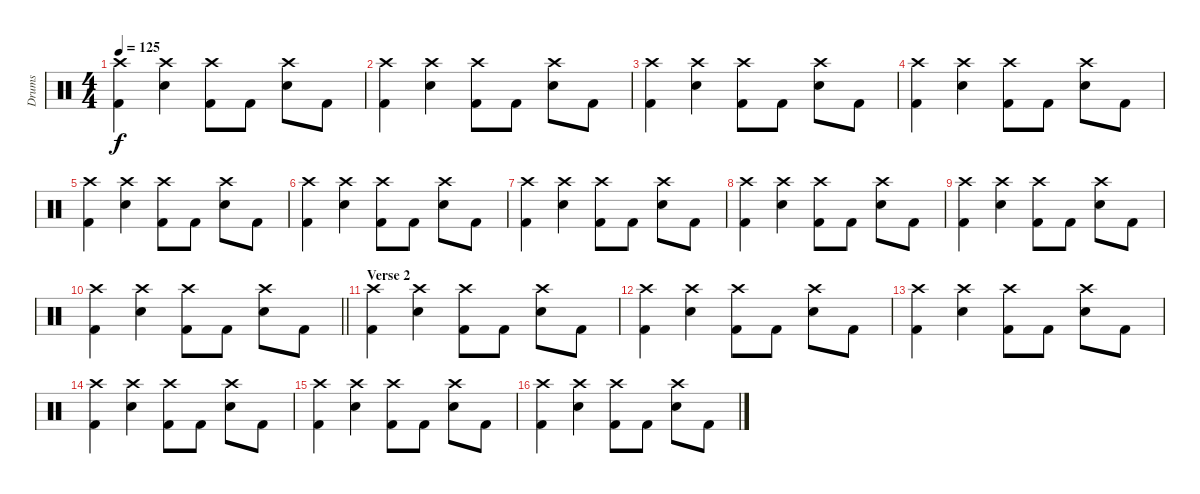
\track ("Drums" "Drums") {instrument percussion}
\staff {score}
\articulation defaults
\ts (4 4)
\tempo 125
\clef neutral
\ks c
("Kick (hit) 2" "Crash high (hit)").4{dy f} ("Snare (hit) 2" "Crash high (hit)").4 ("Kick (hit) 2" "Crash high (hit)").8 "Kick (hit) 2".8 ("Snare (hit) 2" "Crash high (hit)").8 "Kick (hit) 2".8 |
("Kick (hit) 2" "Crash high (hit)").4 ("Snare (hit) 2" "Crash high (hit)").4 ("Kick (hit) 2" "Crash high (hit)").8 "Kick (hit) 2".8 ("Snare (hit) 2" "Crash high (hit)").8 "Kick (hit) 2".8 |
("Kick (hit) 2" "Crash high (hit)").4 ("Snare (hit) 2" "Crash high (hit)").4 ("Kick (hit) 2" "Crash high (hit)").8 "Kick (hit) 2".8 ("Snare (hit) 2" "Crash high (hit)").8 "Kick (hit) 2".8 |
("Kick (hit) 2" "Crash high (hit)").4 ("Snare (hit) 2" "Crash high (hit)").4 ("Kick (hit) 2" "Crash high (hit)").8 "Kick (hit) 2".8 ("Snare (hit) 2" "Crash high (hit)").8 "Kick (hit) 2".8 |
("Kick (hit) 2" "Crash high (hit)").4 ("Snare (hit) 2" "Crash high (hit)").4 ("Kick (hit) 2" "Crash high (hit)").8 "Kick (hit) 2".8 ("Snare (hit) 2" "Crash high (hit)").8 "Kick (hit) 2".8 |
("Kick (hit) 2" "Crash high (hit)").4 ("Snare (hit) 2" "Crash high (hit)").4 ("Kick (hit) 2" "Crash high (hit)").8 "Kick (hit) 2".8 ("Snare (hit) 2" "Crash high (hit)").8 "Kick (hit) 2".8 |
("Kick (hit) 2" "Crash high (hit)").4 ("Snare (hit) 2" "Crash high (hit)").4 ("Kick (hit) 2" "Crash high (hit)").8 "Kick (hit) 2".8 ("Snare (hit) 2" "Crash high (hit)").8 "Kick (hit) 2".8 |
("Kick (hit) 2" "Crash high (hit)").4 ("Snare (hit) 2" "Crash high (hit)").4 ("Kick (hit) 2" "Crash high (hit)").8 "Kick (hit) 2".8 ("Snare (hit) 2" "Crash high (hit)").8 "Kick (hit) 2".8 |
("Kick (hit) 2" "Crash high (hit)").4 ("Snare (hit) 2" "Crash high (hit)").4 ("Kick (hit) 2" "Crash high (hit)").8 "Kick (hit) 2".8 ("Snare (hit) 2" "Crash high (hit)").8 "Kick (hit) 2".8 |
\barLineRight lightlight
("Kick (hit) 2" "Crash high (hit)").4 ("Snare (hit) 2" "Crash high (hit)").4 ("Kick (hit) 2" "Crash high (hit)").8 "Kick (hit) 2".8 ("Snare (hit) 2" "Crash high (hit)").8 "Kick (hit) 2".8 |
\section ("" "Verse 2")
("Kick (hit) 2" "Crash high (hit)").4 ("Snare (hit) 2" "Crash high (hit)").4 ("Kick (hit) 2" "Crash high (hit)").8 "Kick (hit) 2".8 ("Snare (hit) 2" "Crash high (hit)").8 "Kick (hit) 2".8 |
("Kick (hit) 2" "Crash high (hit)").4 ("Snare (hit) 2" "Crash high (hit)").4 ("Kick (hit) 2" "Crash high (hit)").8 "Kick (hit) 2".8 ("Snare (hit) 2" "Crash high (hit)").8 "Kick (hit) 2".8 |
("Kick (hit) 2" "Crash high (hit)").4 ("Snare (hit) 2" "Crash high (hit)").4 ("Kick (hit) 2" "Crash high (hit)").8 "Kick (hit) 2".8 ("Snare (hit) 2" "Crash high (hit)").8 "Kick (hit) 2".8 |
("Kick (hit) 2" "Crash high (hit)").4 ("Snare (hit) 2" "Crash high (hit)").4 ("Kick (hit) 2" "Crash high (hit)").8 "Kick (hit) 2".8 ("Snare (hit) 2" "Crash high (hit)").8 "Kick (hit) 2".8 |
("Kick (hit) 2" "Crash high (hit)").4 ("Snare (hit) 2" "Crash high (hit)").4 ("Kick (hit) 2" "Crash high (hit)").8 "Kick (hit) 2".8 ("Snare (hit) 2" "Crash high (hit)").8 "Kick (hit) 2".8 |
("Kick (hit) 2" "Crash high (hit)").4 ("Snare (hit) 2" "Crash high (hit)").4 ("Kick (hit) 2" "Crash high (hit)").8 "Kick (hit) 2".8 ("Snare (hit) 2" "Crash high (hit)").8 "Kick (hit) 2".8
